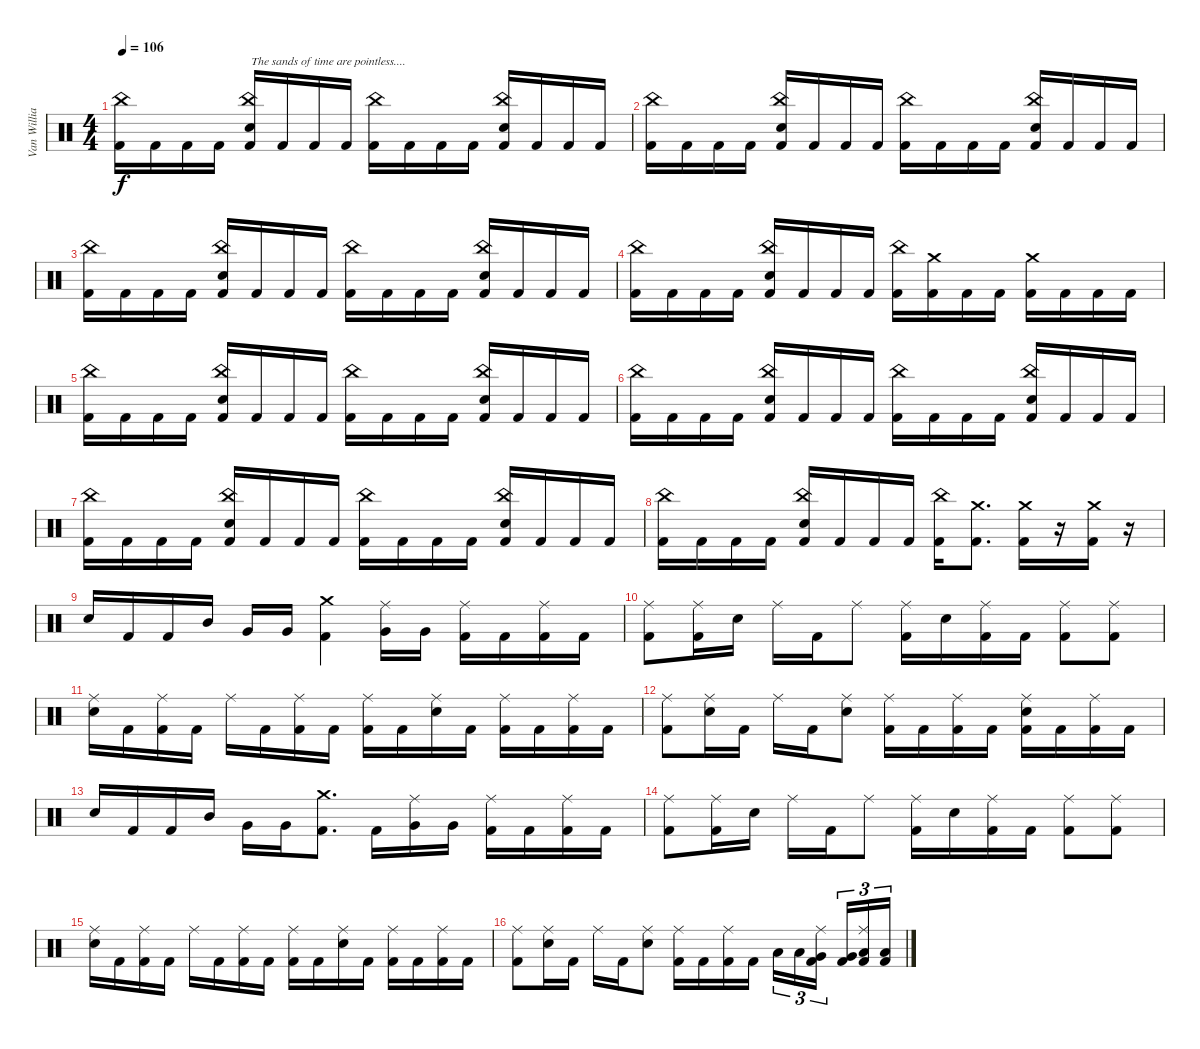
\track ("Van Williams" "Van Willia") {instrument percussion}
\staff {score}
\articulation defaults
\ts (4 4)
\tempo 106
\clef neutral
\ks c
("Kick (hit) 2" "China (hit)").16{dy f} "Kick (hit) 2".16 "Kick (hit) 2".16 "Kick (hit) 2".16 ("Kick (hit) 2" "China (hit)" "Electric Snare (hit)").16{txt "The sands of time are pointless...."} "Kick (hit) 2".16 "Kick (hit) 2".16 "Kick (hit) 2".16 ("Kick (hit) 2" "China (hit)").16 "Kick (hit) 2".16 "Kick (hit) 2".16 "Kick (hit) 2".16 ("Kick (hit) 2" "China (hit)" "Electric Snare (hit)").16 "Kick (hit) 2".16 "Kick (hit) 2".16 "Kick (hit) 2".16 |
("Kick (hit) 2" "China (hit)").16 "Kick (hit) 2".16 "Kick (hit) 2".16 "Kick (hit) 2".16 ("Kick (hit) 2" "China (hit)" "Electric Snare (hit)").16 "Kick (hit) 2".16 "Kick (hit) 2".16 "Kick (hit) 2".16 ("Kick (hit) 2" "China (hit)").16 "Kick (hit) 2".16 "Kick (hit) 2".16 "Kick (hit) 2".16 ("Kick (hit) 2" "China (hit)" "Electric Snare (hit)").16 "Kick (hit) 2".16 "Kick (hit) 2".16 "Kick (hit) 2".16 |
("Kick (hit) 2" "China (hit)").16 "Kick (hit) 2".16 "Kick (hit) 2".16 "Kick (hit) 2".16 ("Kick (hit) 2" "China (hit)" "Electric Snare (hit)").16 "Kick (hit) 2".16 "Kick (hit) 2".16 "Kick (hit) 2".16 ("Kick (hit) 2" "China (hit)").16 "Kick (hit) 2".16 "Kick (hit) 2".16 "Kick (hit) 2".16 ("Kick (hit) 2" "China (hit)" "Electric Snare (hit)").16 "Kick (hit) 2".16 "Kick (hit) 2".16 "Kick (hit) 2".16 |
("Kick (hit) 2" "China (hit)").16 "Kick (hit) 2".16 "Kick (hit) 2".16 "Kick (hit) 2".16 ("Kick (hit) 2" "China (hit)" "Electric Snare (hit)").16 "Kick (hit) 2".16 "Kick (hit) 2".16 "Kick (hit) 2".16 ("Kick (hit) 2" "China (hit)").16 ("Kick (hit) 2" "Crash medium (hit)").16 "Kick (hit) 2".16 "Kick (hit) 2".16 ("Kick (hit) 2" "Crash medium (hit)").16 "Kick (hit) 2".16 "Kick (hit) 2".16 "Kick (hit) 2".16 |
("Kick (hit) 2" "China (hit)").16 "Kick (hit) 2".16 "Kick (hit) 2".16 "Kick (hit) 2".16 ("Kick (hit) 2" "China (hit)" "Electric Snare (hit)").16 "Kick (hit) 2".16 "Kick (hit) 2".16 "Kick (hit) 2".16 ("Kick (hit) 2" "China (hit)").16 "Kick (hit) 2".16 "Kick (hit) 2".16 "Kick (hit) 2".16 ("Kick (hit) 2" "China (hit)" "Electric Snare (hit)").16 "Kick (hit) 2".16 "Kick (hit) 2".16 "Kick (hit) 2".16 |
("Kick (hit) 2" "China (hit)").16 "Kick (hit) 2".16 "Kick (hit) 2".16 "Kick (hit) 2".16 ("Kick (hit) 2" "China (hit)" "Electric Snare (hit)").16 "Kick (hit) 2".16 "Kick (hit) 2".16 "Kick (hit) 2".16 ("Kick (hit) 2" "China (hit)").16 "Kick (hit) 2".16 "Kick (hit) 2".16 "Kick (hit) 2".16 ("Kick (hit) 2" "China (hit)" "Electric Snare (hit)").16 "Kick (hit) 2".16 "Kick (hit) 2".16 "Kick (hit) 2".16 |
("Kick (hit) 2" "China (hit)").16 "Kick (hit) 2".16 "Kick (hit) 2".16 "Kick (hit) 2".16 ("Kick (hit) 2" "China (hit)" "Electric Snare (hit)").16 "Kick (hit) 2".16 "Kick (hit) 2".16 "Kick (hit) 2".16 ("Kick (hit) 2" "China (hit)").16 "Kick (hit) 2".16 "Kick (hit) 2".16 "Kick (hit) 2".16 ("Kick (hit) 2" "China (hit)" "Electric Snare (hit)").16 "Kick (hit) 2".16 "Kick (hit) 2".16 "Kick (hit) 2".16 |
("Kick (hit) 2" "China (hit)").16 "Kick (hit) 2".16 "Kick (hit) 2".16 "Kick (hit) 2".16 ("Kick (hit) 2" "China (hit)" "Electric Snare (hit)").16 "Kick (hit) 2".16 "Kick (hit) 2".16 "Kick (hit) 2".16 ("Kick (hit) 2" "China (hit)").16 ("Kick (hit) 2" "Crash medium (hit)").8{d} ("Kick (hit) 2" "Crash medium (hit)").16 r.16 ("Kick (hit) 2" "Crash medium (hit)").16 r.16 |
"Electric Snare (hit)".16 "Kick (hit) 2".16 "Kick (hit) 2".16 "Mid Tom (hit)".16 "Very Low Tom (hit)".16 "Very Low Tom (hit)".16 ("Kick (hit) 2" "Crash medium (hit)").4 ("Very Low Tom (hit)" "Ride (middle)").16 "Very Low Tom (hit)".16 ("Kick (hit) 2" "Ride (middle)").16 "Kick (hit) 2".16 ("Kick (hit) 2" "Ride (middle)").16 "Kick (hit) 2".16 |
("Kick (hit) 2" "Ride (middle)").8 ("Kick (hit) 2" "Ride (middle)").16 "Electric Snare (hit)".16 "Ride (middle)".16 "Kick (hit) 2".16 "Ride (middle)".8 ("Kick (hit) 2" "Ride (middle)").16 "Electric Snare (hit)".16 ("Kick (hit) 2" "Ride (middle)").16 "Kick (hit) 2".16 ("Kick (hit) 2" "Ride (middle)").8 ("Kick (hit) 2" "Ride (middle)").8 |
("Electric Snare (hit)" "Ride (middle)").16 "Kick (hit) 2".16 ("Kick (hit) 2" "Ride (middle)").16 "Kick (hit) 2".16 "Ride (middle)".16 "Kick (hit) 2".16 ("Kick (hit) 2" "Ride (middle)").16 "Kick (hit) 2".16 ("Kick (hit) 2" "Ride (middle)").16 "Kick (hit) 2".16 ("Electric Snare (hit)" "Ride (middle)").16 "Kick (hit) 2".16 ("Kick (hit) 2" "Ride (middle)").16 "Kick (hit) 2".16 ("Kick (hit) 2" "Ride (middle)").16 "Kick (hit) 2".16 |
("Kick (hit) 2" "Ride (middle)").8 ("Electric Snare (hit)" "Ride (middle)").16 "Kick (hit) 2".16 "Ride (middle)".16 "Kick (hit) 2".16 ("Electric Snare (hit)" "Ride (middle)").8 ("Kick (hit) 2" "Ride (middle)").16 "Kick (hit) 2".16 ("Kick (hit) 2" "Ride (middle)").16 "Kick (hit) 2".16 ("Kick (hit) 2" "Electric Snare (hit)" "Ride (middle)").16 "Kick (hit) 2".16 ("Kick (hit) 2" "Ride (middle)").16 "Kick (hit) 2".16 |
"Electric Snare (hit)".16 "Kick (hit) 2".16 "Kick (hit) 2".16 "Mid Tom (hit)".16 "Very Low Tom (hit)".16 "Very Low Tom (hit)".16 ("Kick (hit) 2" "Crash medium (hit)").8{d} "Kick (hit) 2".16 ("Very Low Tom (hit)" "Ride (middle)").16 "Very Low Tom (hit)".16 ("Kick (hit) 2" "Ride (middle)").16 "Kick (hit) 2".16 ("Kick (hit) 2" "Ride (middle)").16 "Kick (hit) 2".16 |
("Kick (hit) 2" "Ride (middle)").8 ("Kick (hit) 2" "Ride (middle)").16 "Electric Snare (hit)".16 "Ride (middle)".16 "Kick (hit) 2".16 "Ride (middle)".8 ("Kick (hit) 2" "Ride (middle)").16 "Electric Snare (hit)".16 ("Kick (hit) 2" "Ride (middle)").16 "Kick (hit) 2".16 ("Kick (hit) 2" "Ride (middle)").8 ("Kick (hit) 2" "Ride (middle)").8 |
("Electric Snare (hit)" "Ride (middle)").16 "Kick (hit) 2".16 ("Kick (hit) 2" "Ride (middle)").16 "Kick (hit) 2".16 "Ride (middle)".16 "Kick (hit) 2".16 ("Kick (hit) 2" "Ride (middle)").16 "Kick (hit) 2".16 ("Kick (hit) 2" "Ride (middle)").16 "Kick (hit) 2".16 ("Electric Snare (hit)" "Ride (middle)").16 "Kick (hit) 2".16 ("Kick (hit) 2" "Ride (middle)").16 "Kick (hit) 2".16 ("Kick (hit) 2" "Ride (middle)").16 "Kick (hit) 2".16 |
("Kick (hit) 2" "Ride (middle)").8 ("Electric Snare (hit)" "Ride (middle)").16 "Kick (hit) 2".16 "Ride (middle)".16 "Kick (hit) 2".16 ("Electric Snare (hit)" "Ride (middle)").8 ("Kick (hit) 2" "Ride (middle)").16 "Kick (hit) 2".16 ("Kick (hit) 2" "Ride (middle)").16 "Kick (hit) 2".16 "Low Tom (hit)".16{tu (3 2)} "Low Tom (hit)".16{tu (3 2)} ("Kick (hit) 2" "Very Low Tom (hit)" "Ride (middle)").16{tu (3 2)} ("Kick (hit) 2" "Very Low Tom (hit)").16{tu (3 2)} ("Kick (hit) 2" "Low Floor Tom (hit)" "Ride (middle)").16{tu (3 2)} ("Kick (hit) 2" "Low Floor Tom (hit)").16{tu (3 2)}
